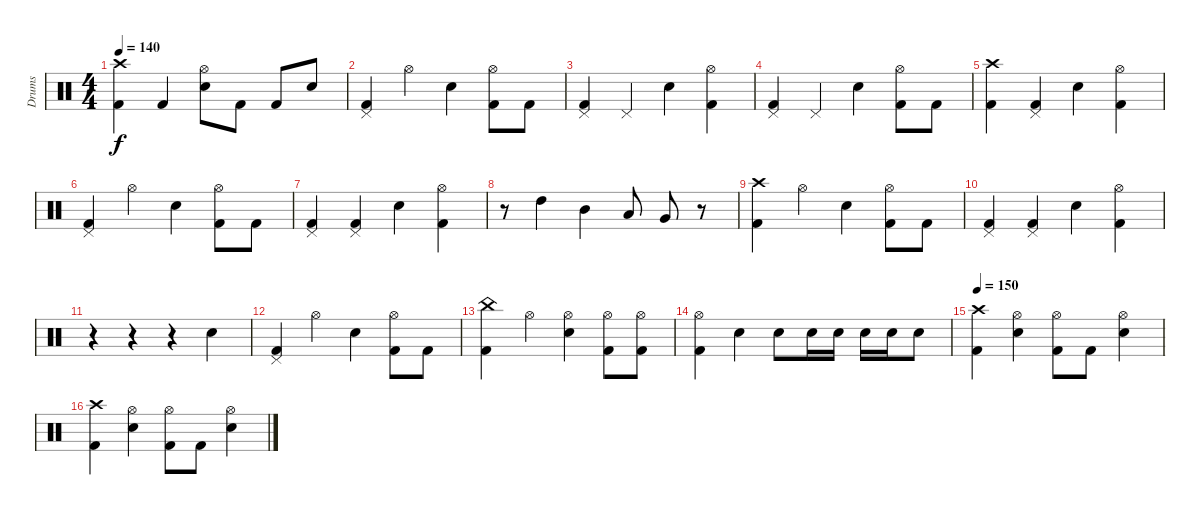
\track ("Drums" "Drums") {instrument percussion}
\staff {score}
\articulation defaults
\ts (4 4)
\tempo 140
\clef neutral
\ks c
("Crash high (hit)" "Kick (hit) 2").4{dy f} "Kick (hit) 2".4 ("Hi-Hat (open)" "Electric Snare (hit)").8 "Kick (hit) 2".8 "Kick (hit) 2".8 "Electric Snare (hit)".8 |
("Pedal Hi-Hat (hit)" "Kick (hit) 2").4 "Hi-Hat (open)".4 "Electric Snare (hit)".4 ("Hi-Hat (open)" "Kick (hit) 2").8 "Kick (hit) 2".8 |
("Pedal Hi-Hat (hit)" "Kick (hit) 2").4 "Pedal Hi-Hat (hit)".4 "Electric Snare (hit)".4 ("Hi-Hat (open)" "Kick (hit) 2").4 |
("Pedal Hi-Hat (hit)" "Kick (hit) 2").4 "Pedal Hi-Hat (hit)".4 "Electric Snare (hit)".4 ("Hi-Hat (open)" "Kick (hit) 2").8 "Kick (hit) 2".8 |
("Crash high (hit)" "Kick (hit) 2").4 ("Pedal Hi-Hat (hit)" "Kick (hit) 2").4 "Electric Snare (hit)".4 ("Hi-Hat (open)" "Kick (hit) 2").4 |
("Pedal Hi-Hat (hit)" "Kick (hit) 2").4 "Hi-Hat (open)".4 "Electric Snare (hit)".4 ("Hi-Hat (open)" "Kick (hit) 2").8 "Kick (hit) 2".8 |
("Pedal Hi-Hat (hit)" "Kick (hit) 2").4 ("Pedal Hi-Hat (hit)" "Kick (hit) 2").4 "Electric Snare (hit)".4 ("Hi-Hat (open)" "Kick (hit) 2").4 |
r.8 "High Tom (hit)".4 "Mid Tom (hit)".4 "Low Tom (hit)".8 "Very Low Tom (hit)".8 r.8 |
("Crash high (hit)" "Kick (hit) 2").4 "Hi-Hat (open)".4 "Electric Snare (hit)".4 ("Hi-Hat (open)" "Kick (hit) 2").8 "Kick (hit) 2".8 |
("Pedal Hi-Hat (hit)" "Kick (hit) 2").4 ("Pedal Hi-Hat (hit)" "Kick (hit) 2").4 "Electric Snare (hit)".4 ("Hi-Hat (open)" "Kick (hit) 2").4 |
r.4 r.4 r.4 "Metronome (bell)".4 |
("Pedal Hi-Hat (hit)" "Kick (hit) 2").4 "Hi-Hat (open)".4 "Electric Snare (hit)".4 ("Hi-Hat (open)" "Kick (hit) 2").8 "Kick (hit) 2".8 |
("China (hit)" "Kick (hit) 2").4 "Hi-Hat (open)".4 ("Hi-Hat (open)" "Electric Snare (hit)").4 ("Hi-Hat (open)" "Kick (hit) 2").8 ("Hi-Hat (open)" "Kick (hit) 2").8 |
("Hi-Hat (open)" "Kick (hit) 2").4 "Electric Snare (hit)".4 "Electric Snare (hit)".8 "Electric Snare (hit)".16 "Electric Snare (hit)".16 "Electric Snare (hit)".16 "Electric Snare (hit)".16 "Electric Snare (hit)".8 |
\tempo 150
("Crash high (hit)" "Kick (hit) 2").4 ("Hi-Hat (open)" "Electric Snare (hit)").4 ("Hi-Hat (open)" "Kick (hit) 2").8 "Kick (hit) 2".8 ("Hi-Hat (open)" "Electric Snare (hit)").4 |
("Crash high (hit)" "Kick (hit) 2").4 ("Hi-Hat (open)" "Electric Snare (hit)").4 ("Hi-Hat (open)" "Kick (hit) 2").8 "Kick (hit) 2".8 ("Hi-Hat (open)" "Electric Snare (hit)").4
